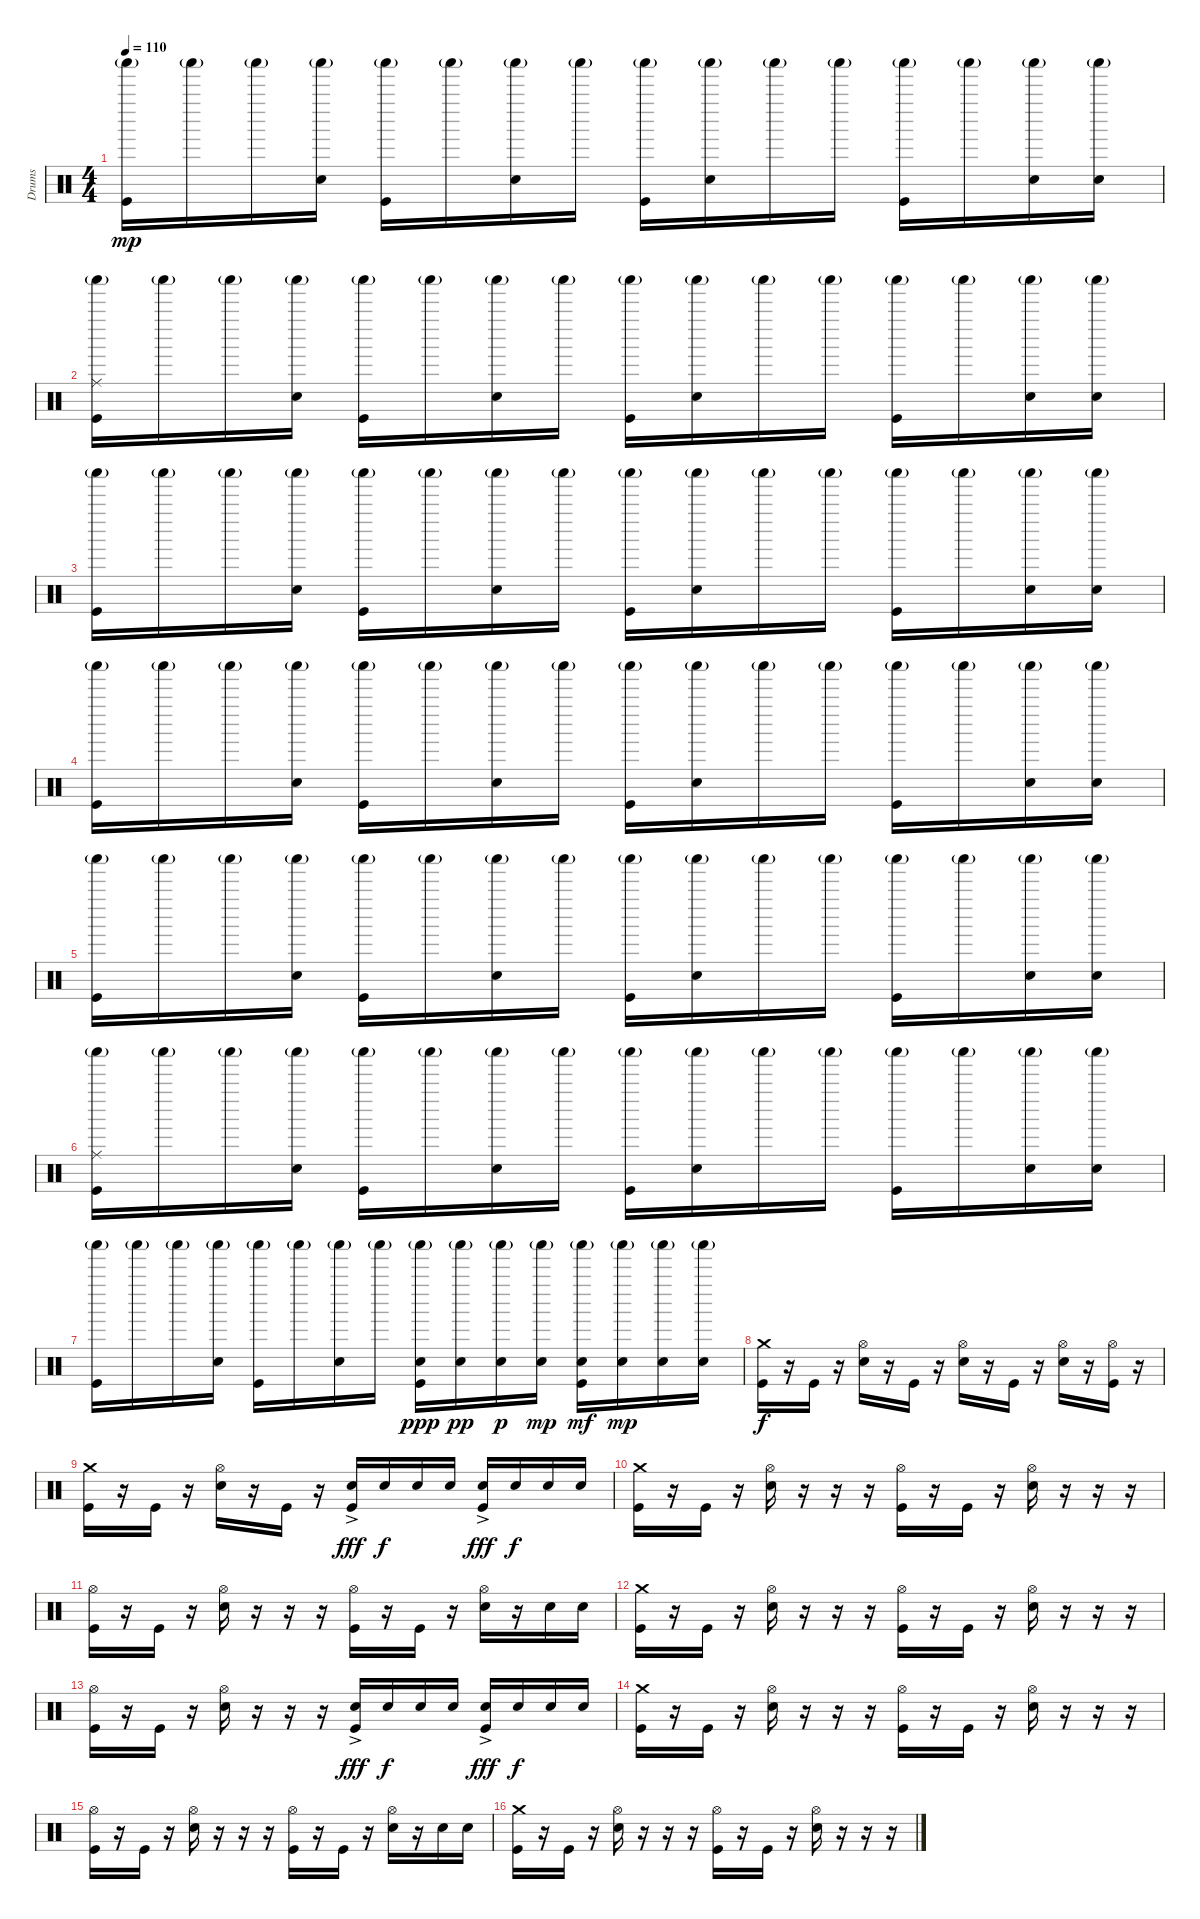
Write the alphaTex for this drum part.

\track ("Drums" "Drums") {instrument percussion}
\staff {score}
\articulation defaults
\ts (4 4)
\tempo 110
\clef neutral
\ks c
("Shaker (hit)"{g} "Kick (hit)").16{dy mp} "Shaker (hit)"{g}.16 "Shaker (hit)"{g}.16 ("Shaker (hit)"{g} "Snare (hit) 2").16 ("Shaker (hit)"{g} "Kick (hit)").16 "Shaker (hit)"{g}.16 ("Shaker (hit)"{g} "Snare (hit) 2").16 "Shaker (hit)"{g}.16 ("Shaker (hit)"{g} "Kick (hit)").16 ("Shaker (hit)"{g} "Snare (hit) 2").16 "Shaker (hit)"{g}.16 "Shaker (hit)"{g}.16 ("Shaker (hit)"{g} "Kick (hit)").16 "Shaker (hit)"{g}.16 ("Shaker (hit)"{g} "Snare (hit) 2").16 ("Shaker (hit)"{g} "Snare (hit) 2").16 |
("Shaker (hit)"{g} "Ride (middle)" "Kick (hit)").16 "Shaker (hit)"{g}.16 "Shaker (hit)"{g}.16 ("Shaker (hit)"{g} "Snare (hit) 2").16 ("Shaker (hit)"{g} "Kick (hit)").16 "Shaker (hit)"{g}.16 ("Shaker (hit)"{g} "Snare (hit) 2").16 "Shaker (hit)"{g}.16 ("Shaker (hit)"{g} "Kick (hit)").16 ("Shaker (hit)"{g} "Snare (hit) 2").16 "Shaker (hit)"{g}.16 "Shaker (hit)"{g}.16 ("Shaker (hit)"{g} "Kick (hit)").16 "Shaker (hit)"{g}.16 ("Shaker (hit)"{g} "Snare (hit) 2").16 ("Shaker (hit)"{g} "Snare (hit) 2").16 |
("Shaker (hit)"{g} "Kick (hit)").16 "Shaker (hit)"{g}.16 "Shaker (hit)"{g}.16 ("Shaker (hit)"{g} "Snare (hit) 2").16 ("Shaker (hit)"{g} "Kick (hit)").16 "Shaker (hit)"{g}.16 ("Shaker (hit)"{g} "Snare (hit) 2").16 "Shaker (hit)"{g}.16 ("Shaker (hit)"{g} "Kick (hit)").16 ("Shaker (hit)"{g} "Snare (hit) 2").16 "Shaker (hit)"{g}.16 "Shaker (hit)"{g}.16 ("Shaker (hit)"{g} "Kick (hit)").16 "Shaker (hit)"{g}.16 ("Shaker (hit)"{g} "Snare (hit) 2").16 ("Shaker (hit)"{g} "Snare (hit) 2").16 |
("Shaker (hit)"{g} "Kick (hit)").16 "Shaker (hit)"{g}.16 "Shaker (hit)"{g}.16 ("Shaker (hit)"{g} "Snare (hit) 2").16 ("Shaker (hit)"{g} "Kick (hit)").16 "Shaker (hit)"{g}.16 ("Shaker (hit)"{g} "Snare (hit) 2").16 "Shaker (hit)"{g}.16 ("Shaker (hit)"{g} "Kick (hit)").16 ("Shaker (hit)"{g} "Snare (hit) 2").16 "Shaker (hit)"{g}.16 "Shaker (hit)"{g}.16 ("Shaker (hit)"{g} "Kick (hit)").16 "Shaker (hit)"{g}.16 ("Shaker (hit)"{g} "Snare (hit) 2").16 ("Shaker (hit)"{g} "Snare (hit) 2").16 |
("Shaker (hit)"{g} "Kick (hit)").16 "Shaker (hit)"{g}.16 "Shaker (hit)"{g}.16 ("Shaker (hit)"{g} "Snare (hit) 2").16 ("Shaker (hit)"{g} "Kick (hit)").16 "Shaker (hit)"{g}.16 ("Shaker (hit)"{g} "Snare (hit) 2").16 "Shaker (hit)"{g}.16 ("Shaker (hit)"{g} "Kick (hit)").16 ("Shaker (hit)"{g} "Snare (hit) 2").16 "Shaker (hit)"{g}.16 "Shaker (hit)"{g}.16 ("Shaker (hit)"{g} "Kick (hit)").16 "Shaker (hit)"{g}.16 ("Shaker (hit)"{g} "Snare (hit) 2").16 ("Shaker (hit)"{g} "Snare (hit) 2").16 |
("Shaker (hit)"{g} "Ride (middle)" "Kick (hit)").16 "Shaker (hit)"{g}.16 "Shaker (hit)"{g}.16 ("Shaker (hit)"{g} "Snare (hit) 2").16 ("Shaker (hit)"{g} "Kick (hit)").16 "Shaker (hit)"{g}.16 ("Shaker (hit)"{g} "Snare (hit) 2").16 "Shaker (hit)"{g}.16 ("Shaker (hit)"{g} "Kick (hit)").16 ("Shaker (hit)"{g} "Snare (hit) 2").16 "Shaker (hit)"{g}.16 "Shaker (hit)"{g}.16 ("Shaker (hit)"{g} "Kick (hit)").16 "Shaker (hit)"{g}.16 ("Shaker (hit)"{g} "Snare (hit) 2").16 ("Shaker (hit)"{g} "Snare (hit) 2").16 |
("Shaker (hit)"{g} "Kick (hit)").16 "Shaker (hit)"{g}.16 "Shaker (hit)"{g}.16 ("Shaker (hit)"{g} "Snare (hit) 2").16 ("Shaker (hit)"{g} "Kick (hit)").16 "Shaker (hit)"{g}.16 ("Shaker (hit)"{g} "Snare (hit) 2").16 "Shaker (hit)"{g}.16 ("Shaker (hit)"{g} "Snare (hit) 2" "Kick (hit)").16{dy ppp} ("Shaker (hit)"{g} "Snare (hit) 2").16{dy pp} ("Shaker (hit)"{g} "Snare (hit) 2").16{dy p} ("Shaker (hit)"{g} "Snare (hit) 2").16{dy mp} ("Shaker (hit)"{g} "Snare (hit) 2" "Kick (hit)").16{dy mf} ("Shaker (hit)"{g} "Snare (hit) 2").16{dy mp} ("Shaker (hit)"{g} "Snare (hit) 2").16 ("Shaker (hit)"{g} "Snare (hit) 2").16 |
("Crash medium (hit)" "Kick (hit)").16{dy f} r.16 "Kick (hit)".16 r.16 ("Hi-Hat (open)" "Snare (hit) 2").16 r.16 "Kick (hit)".16 r.16 ("Hi-Hat (open)" "Snare (hit) 2").16 r.16 "Kick (hit)".16 r.16 ("Hi-Hat (open)" "Snare (hit) 2").16 r.16 ("Hi-Hat (open)" "Kick (hit)").16 r.16 |
("Crash medium (hit)" "Kick (hit)").16 r.16 "Kick (hit)".16 r.16 ("Hi-Hat (open)" "Snare (hit) 2").16 r.16 "Kick (hit)".16 r.16 ("Snare (hit) 2"{ac} "Kick (hit)").16{dy fff} "Snare (hit) 2".16{dy f} "Snare (hit) 2".16 "Snare (hit) 2".16 ("Snare (hit) 2"{ac} "Kick (hit)").16{dy fff} "Snare (hit) 2".16{dy f} "Snare (hit) 2".16 "Snare (hit) 2".16 |
("Crash medium (hit)" "Kick (hit)").16 r.16 "Kick (hit)".16 r.16 ("Hi-Hat (open)" "Snare (hit) 2").16 r.16 r.16 r.16 ("Hi-Hat (open)" "Kick (hit)").16 r.16 "Kick (hit)".16 r.16 ("Hi-Hat (open)" "Snare (hit) 2").16 r.16 r.16 r.16 |
("Hi-Hat (open)" "Kick (hit)").16 r.16 "Kick (hit)".16 r.16 ("Hi-Hat (open)" "Snare (hit) 2").16 r.16 r.16 r.16 ("Hi-Hat (open)" "Kick (hit)").16 r.16 "Kick (hit)".16 r.16 ("Hi-Hat (open)" "Snare (hit) 2").16 r.16 "Snare (hit) 2".16 "Snare (hit) 2".16 |
("Crash medium (hit)" "Kick (hit)").16 r.16 "Kick (hit)".16 r.16 ("Hi-Hat (open)" "Snare (hit) 2").16 r.16 r.16 r.16 ("Hi-Hat (open)" "Kick (hit)").16 r.16 "Kick (hit)".16 r.16 ("Hi-Hat (open)" "Snare (hit) 2").16 r.16 r.16 r.16 |
("Hi-Hat (open)" "Kick (hit)").16 r.16 "Kick (hit)".16 r.16 ("Hi-Hat (open)" "Snare (hit) 2").16 r.16 r.16 r.16 ("Snare (hit) 2" "Kick (hit)"{ac}).16{dy fff} "Snare (hit) 2".16{dy f} "Snare (hit) 2".16 "Snare (hit) 2".16 ("Snare (hit) 2" "Kick (hit)"{ac}).16{dy fff} "Snare (hit) 2".16{dy f} "Snare (hit) 2".16 "Snare (hit) 2".16 |
("Crash medium (hit)" "Kick (hit)").16 r.16 "Kick (hit)".16 r.16 ("Hi-Hat (open)" "Snare (hit) 2").16 r.16 r.16 r.16 ("Hi-Hat (open)" "Kick (hit)").16 r.16 "Kick (hit)".16 r.16 ("Hi-Hat (open)" "Snare (hit) 2").16 r.16 r.16 r.16 |
("Hi-Hat (open)" "Kick (hit)").16 r.16 "Kick (hit)".16 r.16 ("Hi-Hat (open)" "Snare (hit) 2").16 r.16 r.16 r.16 ("Hi-Hat (open)" "Kick (hit)").16 r.16 "Kick (hit)".16 r.16 ("Hi-Hat (open)" "Snare (hit) 2").16 r.16 "Snare (hit) 2".16 "Snare (hit) 2".16 |
("Crash medium (hit)" "Kick (hit)").16 r.16 "Kick (hit)".16 r.16 ("Hi-Hat (open)" "Snare (hit) 2").16 r.16 r.16 r.16 ("Hi-Hat (open)" "Kick (hit)").16 r.16 "Kick (hit)".16 r.16 ("Hi-Hat (open)" "Snare (hit) 2").16 r.16 r.16 r.16
